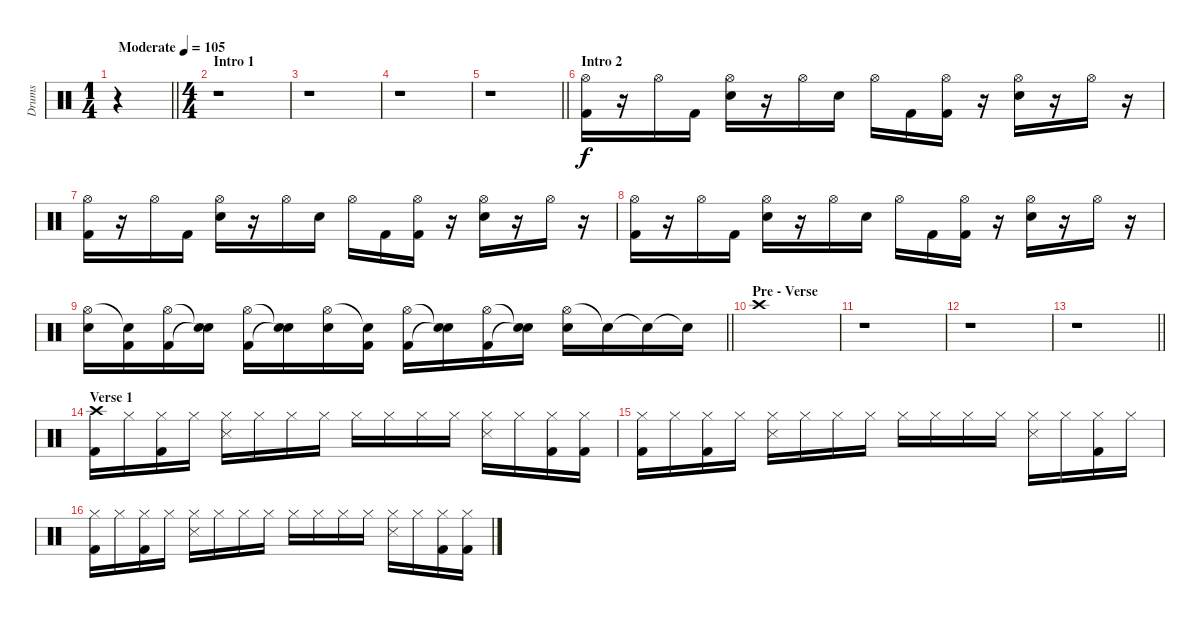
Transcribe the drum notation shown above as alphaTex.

\track ("Drums" "Drums") {instrument percussion}
\staff {score}
\articulation defaults
\ts (1 4)
\tempo (105 "Moderate")
\clef neutral
\barLineRight lightlight
\ks c
r.4{dy f} |
\ts (4 4)
\section ("" "Intro 1")
r.1 |
r.1 |
r.1 |
\barLineRight lightlight
r.1 |
\section ("" "Intro 2")
("Hi-Hat (open)" "Kick (hit) 2").16 r.16 "Hi-Hat (open)".16 "Kick (hit) 2".16 ("Hi-Hat (open)" "Electric Snare (hit)").16 r.16 "Hi-Hat (open)".16 "Electric Snare (hit)".16 "Hi-Hat (open)".16 "Kick (hit) 2".16 ("Hi-Hat (open)" "Kick (hit) 2").16 r.16 ("Hi-Hat (open)" "Electric Snare (hit)").16 r.16 "Hi-Hat (open)".16 r.16 |
("Hi-Hat (open)" "Kick (hit) 2").16 r.16 "Hi-Hat (open)".16 "Kick (hit) 2".16 ("Hi-Hat (open)" "Electric Snare (hit)").16 r.16 "Hi-Hat (open)".16 "Electric Snare (hit)".16 "Hi-Hat (open)".16 "Kick (hit) 2".16 ("Hi-Hat (open)" "Kick (hit) 2").16 r.16 ("Hi-Hat (open)" "Electric Snare (hit)").16 r.16 "Hi-Hat (open)".16 r.16 |
("Hi-Hat (open)" "Kick (hit) 2").16 r.16 "Hi-Hat (open)".16 "Kick (hit) 2".16 ("Hi-Hat (open)" "Electric Snare (hit)").16 r.16 "Hi-Hat (open)".16 "Electric Snare (hit)".16 "Hi-Hat (open)".16 "Kick (hit) 2".16 ("Hi-Hat (open)" "Kick (hit) 2").16 r.16 ("Hi-Hat (open)" "Electric Snare (hit)").16 r.16 "Hi-Hat (open)".16 r.16 |
\barLineRight lightlight
("Hi-Hat (open)" "Electric Snare (hit)").16 ("Snare (hit)"{t} "Kick (hit) 2").16 ("Hi-Hat (open)" "Kick (hit) 2").16 ("Snare (hit)"{t} "Snare (hit)"{t}).16 ("Hi-Hat (open)" "Kick (hit) 2").16 ("Snare (hit)"{t} "Snare (hit)"{t}).16 ("Hi-Hat (open)" "Electric Snare (hit)").16 ("Snare (hit)"{t} "Kick (hit) 2").16 ("Hi-Hat (open)" "Kick (hit) 2").16 ("Snare (hit)"{t} "Snare (hit)"{t}).16 ("Hi-Hat (open)" "Kick (hit) 2").16 ("Snare (hit)"{t} "Snare (hit)"{t}).16 ("Hi-Hat (open)" "Electric Snare (hit)").16 "Snare (hit)"{t}.16 "Snare (hit)"{t}.16 "Snare (hit)"{t}.16 |
\section ("" "Pre - Verse")
"Crash high (hit)".1 |
r.1 |
r.1 |
\barLineRight lightlight
r.1 |
\section ("" "Verse 1")
("Crash high (hit)" "Kick (hit) 2").16 "Hi-Hat (closed)".16 ("Hi-Hat (closed)" "Kick (hit) 2").16 "Hi-Hat (closed)".16 ("Hi-Hat (closed)" "Snare (side stick) 3").16 "Hi-Hat (closed)".16 "Hi-Hat (closed)".16 "Hi-Hat (closed)".16 "Hi-Hat (closed)".16 "Hi-Hat (closed)".16 "Hi-Hat (closed)".16 "Hi-Hat (closed)".16 ("Hi-Hat (closed)" "Snare (side stick) 3").16 "Hi-Hat (closed)".16 ("Hi-Hat (closed)" "Kick (hit) 2").16 ("Hi-Hat (closed)" "Kick (hit) 2").16 |
("Hi-Hat (closed)" "Kick (hit) 2").16 "Hi-Hat (closed)".16 ("Hi-Hat (closed)" "Kick (hit) 2").16 "Hi-Hat (closed)".16 ("Hi-Hat (closed)" "Snare (side stick) 3").16 "Hi-Hat (closed)".16 "Hi-Hat (closed)".16 "Hi-Hat (closed)".16 "Hi-Hat (closed)".16 "Hi-Hat (closed)".16 "Hi-Hat (closed)".16 "Hi-Hat (closed)".16 ("Hi-Hat (closed)" "Snare (side stick) 3").16 "Hi-Hat (closed)".16 ("Hi-Hat (closed)" "Kick (hit) 2").16 "Hi-Hat (closed)".16 |
("Hi-Hat (closed)" "Kick (hit) 2").16 "Hi-Hat (closed)".16 ("Hi-Hat (closed)" "Kick (hit) 2").16 "Hi-Hat (closed)".16 ("Hi-Hat (closed)" "Snare (side stick) 3").16 "Hi-Hat (closed)".16 "Hi-Hat (closed)".16 "Hi-Hat (closed)".16 "Hi-Hat (closed)".16 "Hi-Hat (closed)".16 "Hi-Hat (closed)".16 "Hi-Hat (closed)".16 ("Hi-Hat (closed)" "Snare (side stick) 3").16 "Hi-Hat (closed)".16 ("Hi-Hat (closed)" "Kick (hit) 2").16 ("Hi-Hat (closed)" "Kick (hit) 2").16
